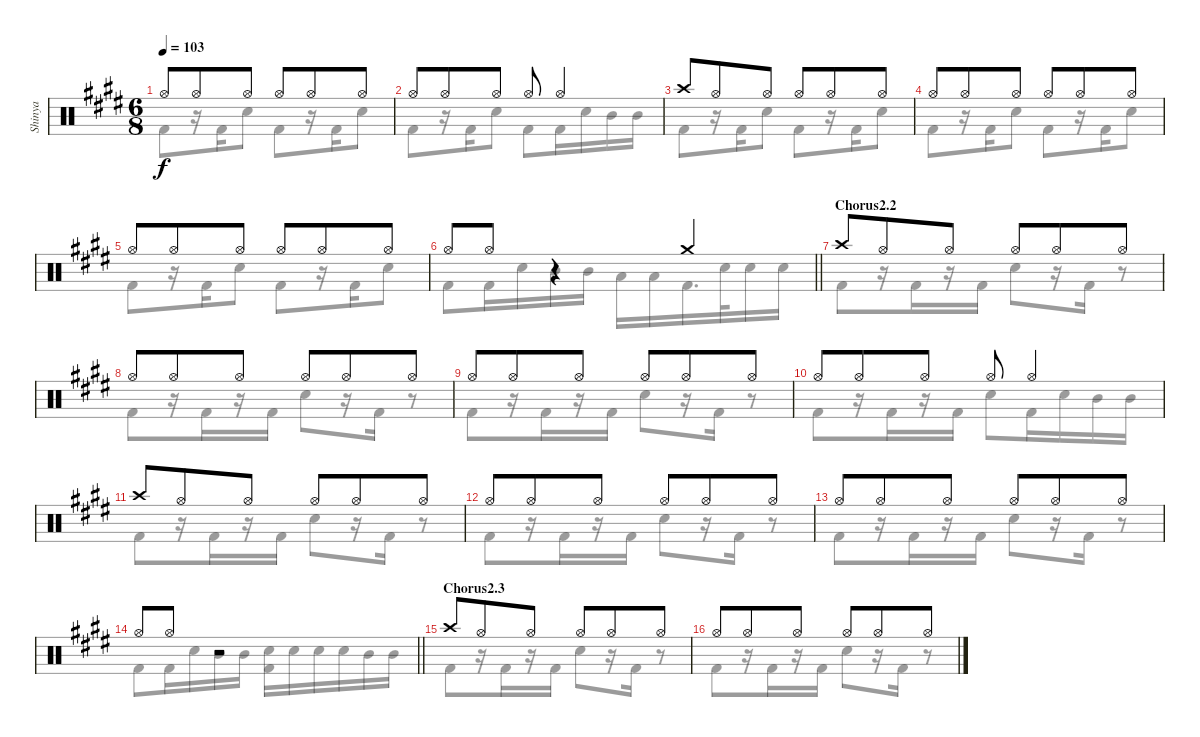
\track ("Shinya" "Shinya") {instrument percussion}
\staff {score}
\articulation defaults
\voice
\ts (6 8)
\tempo 103
\clef neutral
\ks c#minor "Hi-Hat (open)".8{dy f} "Hi-Hat (open)".8 "Hi-Hat (open)".8 "Hi-Hat (open)".8 "Hi-Hat (open)".8 "Hi-Hat (open)".8
|
"Hi-Hat (open)".8 "Hi-Hat (open)".8 "Hi-Hat (open)".8 "Hi-Hat (open)".8 "Hi-Hat (open)".4 |
"Crash high (hit)".8 "Hi-Hat (open)".8 "Hi-Hat (open)".8 "Hi-Hat (open)".8 "Hi-Hat (open)".8 "Hi-Hat (open)".8 |
"Hi-Hat (open)".8 "Hi-Hat (open)".8 "Hi-Hat (open)".8 "Hi-Hat (open)".8 "Hi-Hat (open)".8 "Hi-Hat (open)".8 |
"Hi-Hat (open)".8 "Hi-Hat (open)".8 "Hi-Hat (open)".8 "Hi-Hat (open)".8 "Hi-Hat (open)".8 "Hi-Hat (open)".8 |
\barLineRight lightlight "Hi-Hat (open)".8 "Hi-Hat (open)".8
r.4 "Crash medium (hit)".4 |
\section ("" "Chorus2.2")
"Crash high (hit)".8 "Hi-Hat (open)".8 "Hi-Hat (open)".8 "Hi-Hat (open)".8 "Hi-Hat (open)".8 "Hi-Hat (open)".8 |
"Hi-Hat (open)".8 "Hi-Hat (open)".8 "Hi-Hat (open)".8 "Hi-Hat (open)".8 "Hi-Hat (open)".8 "Hi-Hat (open)".8 |
"Hi-Hat (open)".8 "Hi-Hat (open)".8 "Hi-Hat (open)".8 "Hi-Hat (open)".8 "Hi-Hat (open)".8 "Hi-Hat (open)".8 |
"Hi-Hat (open)".8 "Hi-Hat (open)".8 "Hi-Hat (open)".8 "Hi-Hat (open)".8 "Hi-Hat (open)".4 |
"Crash high (hit)".8 "Hi-Hat (open)".8 "Hi-Hat (open)".8 "Hi-Hat (open)".8 "Hi-Hat (open)".8 "Hi-Hat (open)".8 |
"Hi-Hat (open)".8 "Hi-Hat (open)".8 "Hi-Hat (open)".8 "Hi-Hat (open)".8 "Hi-Hat (open)".8 "Hi-Hat (open)".8 |
"Hi-Hat (open)".8 "Hi-Hat (open)".8 "Hi-Hat (open)".8 "Hi-Hat (open)".8 "Hi-Hat (open)".8 "Hi-Hat (open)".8 |
\barLineRight lightlight "Hi-Hat (open)".8 "Hi-Hat (open)".8
r.2 |
\section ("" "Chorus2.3")
"Crash high (hit)".8 "Hi-Hat (open)".8 "Hi-Hat (open)".8 "Hi-Hat (open)".8 "Hi-Hat (open)".8 "Hi-Hat (open)".8 |
"Hi-Hat (open)".8 "Hi-Hat (open)".8 "Hi-Hat (open)".8 "Hi-Hat (open)".8 "Hi-Hat (open)".8 "Hi-Hat (open)".8
\voice
\clef neutral
\ottava regular
\simile none
\ks c#minor "Kick (hit) 2".8{dy f}
r.16 "Kick (hit) 2".16 "Snare (hit) 2".8 "Kick (hit) 2".8 r.16 "Kick (hit) 2".16 "Snare (hit) 2".8 |
"Kick (hit) 2".8 r.16 "Kick (hit) 2".16 "Snare (hit) 2".8 "Kick (hit) 2".8 "Kick (hit) 2".16 "Snare (hit) 2".16 "Mid Tom (hit)".16 "Mid Tom (hit)".16 |
"Kick (hit) 2".8 r.16 "Kick (hit) 2".16 "Snare (hit) 2".8 "Kick (hit) 2".8 r.16 "Kick (hit) 2".16 "Snare (hit) 2".8 |
"Kick (hit) 2".8 r.16 "Kick (hit) 2".16 "Snare (hit) 2".8 "Kick (hit) 2".8 r.16 "Kick (hit) 2".16 "Snare (hit) 2".8 |
"Kick (hit) 2".8 r.16 "Kick (hit) 2".16 "Snare (hit) 2".8 "Kick (hit) 2".8 r.16 "Kick (hit) 2".16 "Snare (hit) 2".8 |
\barLineRight lightlight "Kick (hit) 2".8 "Kick (hit) 2".16 "Snare (hit) 2".16 "Mid Tom (hit)".16 "Mid Tom (hit)".16 "Low Tom (hit)".16 "Low Tom (hit)".16 "Kick (hit) 2".16{d} "Snare (hit) 2".32 "Snare (hit) 2".16 "Snare (hit) 2".16
|
"Kick (hit) 2".8 r.16 "Kick (hit) 2".16 r.16 "Kick (hit) 2".16 "Snare (hit) 2".8 r.16 "Kick (hit) 2".16 r.8 |
"Kick (hit) 2".8 r.16 "Kick (hit) 2".16 r.16 "Kick (hit) 2".16 "Snare (hit) 2".8 r.16 "Kick (hit) 2".16 r.8 |
"Kick (hit) 2".8 r.16 "Kick (hit) 2".16 r.16 "Kick (hit) 2".16 "Snare (hit) 2".8 r.16 "Kick (hit) 2".16 r.8 |
"Kick (hit) 2".8 r.16 "Kick (hit) 2".16 r.16 "Kick (hit) 2".16 "Snare (hit) 2".8 "Kick (hit) 2".16 "Snare (hit) 2".16 "Mid Tom (hit)".16 "Mid Tom (hit)".16 |
"Kick (hit) 2".8 r.16 "Kick (hit) 2".16 r.16 "Kick (hit) 2".16 "Snare (hit) 2".8 r.16 "Kick (hit) 2".16 r.8 |
"Kick (hit) 2".8 r.16 "Kick (hit) 2".16 r.16 "Kick (hit) 2".16 "Snare (hit) 2".8 r.16 "Kick (hit) 2".16 r.8 |
"Kick (hit) 2".8 r.16 "Kick (hit) 2".16 r.16 "Kick (hit) 2".16 "Snare (hit) 2".8 r.16 "Kick (hit) 2".16 r.8 |
\barLineRight lightlight "Kick (hit) 2".8 "Kick (hit) 2".16 "Snare (hit) 2".16 "Mid Tom (hit)".16 "Mid Tom (hit)".16
("Snare (hit) 2" "Kick (hit) 2").16 "Snare (hit) 2".16 "Snare (hit) 2".16 "Snare (hit) 2".16 "Mid Tom (hit)".16 "Mid Tom (hit)".16 |
"Kick (hit) 2".8 r.16 "Kick (hit) 2".16 r.16 "Kick (hit) 2".16 "Snare (hit) 2".8 r.16 "Kick (hit) 2".16 r.8 |
"Kick (hit) 2".8 r.16 "Kick (hit) 2".16 r.16 "Kick (hit) 2".16 "Snare (hit) 2".8 r.16 "Kick (hit) 2".16 r.8
